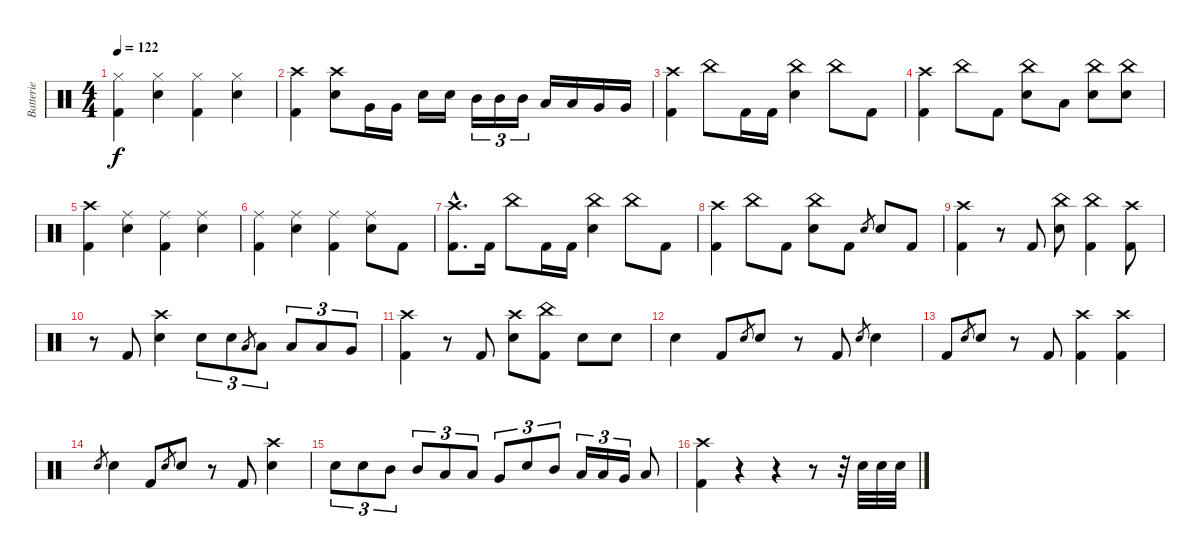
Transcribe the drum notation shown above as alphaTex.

\track ("Batterie" "Batterie") {instrument percussion}
\staff {score}
\articulation defaults
\ts (4 4)
\tempo 122
\clef neutral
\ks c
("Hi-Hat (closed)" "Kick (hit) 2").4{dy f} ("Hi-Hat (closed)" "Snare (hit) 2").4 ("Hi-Hat (closed)" "Kick (hit) 2").4 ("Hi-Hat (closed)" "Snare (hit) 2").4 |
("Crash high (hit)" "Kick (hit) 2").4 ("Crash high (hit)" "Snare (hit) 2").8 "Very Low Tom (hit)".16 "Very Low Tom (hit)".16 "Snare (hit) 2".16 "Snare (hit) 2".16 "Mid Tom (hit)".16{tu (3 2)} "Mid Tom (hit)".16{tu (3 2)} "Mid Tom (hit)".16{tu (3 2)} "Low Tom (hit)".16 "Low Tom (hit)".16 "Very Low Tom (hit)".16 "Very Low Tom (hit)".16 |
("Crash high (hit)" "Kick (hit) 2").4 "China (hit)".8 "Kick (hit) 2".16 "Kick (hit) 2".16 ("China (hit)" "Snare (hit) 2").4 "China (hit)".8 "Kick (hit) 2".8 |
("Crash high (hit)" "Kick (hit) 2").4 "China (hit)".8 "Kick (hit) 2".8 ("China (hit)" "Snare (hit) 2").8 "Low Tom (hit)".8 ("China (hit)" "Snare (hit) 2").8 ("China (hit)" "Snare (hit) 2").8 |
("Crash high (hit)" "Kick (hit) 2").4 ("Ride (middle)" "Snare (hit) 2").4 ("Ride (middle)" "Kick (hit) 2").4 ("Ride (middle)" "Snare (hit) 2").4 |
("Ride (middle)" "Kick (hit) 2").4 ("Ride (middle)" "Snare (hit) 2").4 ("Ride (middle)" "Kick (hit) 2").4 ("Ride (middle)" "Snare (hit) 2").8 "Kick (hit) 2".8 |
("Crash high (hit)"{hac} "Kick (hit) 2"{hac}).8{d} "Kick (hit) 2".16 "China (hit)".8 "Kick (hit) 2".16 "Kick (hit) 2".16 ("China (hit)" "Snare (hit) 2").4 "China (hit)".8 "Kick (hit) 2".8 |
("Crash high (hit)" "Kick (hit) 2").4 "China (hit)".8 "Kick (hit) 2".8 ("China (hit)" "Snare (hit) 2").8 "Kick (hit) 2".8 "Snare (hit) 2".8{gr} "Snare (hit) 2".8 "Kick (hit) 2".8 |
("Crash high (hit)" "Kick (hit) 2").4 r.8 "Kick (hit) 2".8 ("China (hit)" "Snare (hit) 2").8 ("China (hit)" "Kick (hit) 2").4 ("Crash high (hit)" "Kick (hit) 2").8 |
r.8 "Kick (hit) 2".8 ("Crash high (hit)" "Snare (hit) 2").4 "Snare (hit) 2".8{tu (3 2)} "Snare (hit) 2".8{tu (3 2)} "Low Tom (hit)".8{gr} "Low Tom (hit)".8{tu (3 2)} "Low Tom (hit)".8{tu (3 2)} "Low Tom (hit)".8{tu (3 2)} "Very Low Tom (hit)".8{tu (3 2)} |
("Crash high (hit)" "Kick (hit) 2").4 r.8 "Kick (hit) 2".8 ("Crash high (hit)" "Snare (hit) 2").8 ("China (hit)" "Kick (hit) 2").8 "Snare (hit) 2".8 "Snare (hit) 2".8 |
"Snare (hit) 2".4 "Kick (hit) 2".8 "Snare (hit) 2".8{gr} "Snare (hit) 2".8 r.8 "Kick (hit) 2".8 "Snare (hit) 2".8{gr} "Snare (hit) 2".4 |
"Kick (hit) 2".8 "Snare (hit) 2".8{gr} "Snare (hit) 2".8 r.8 "Kick (hit) 2".8 ("Crash high (hit)" "Kick (hit) 2").4 ("Crash high (hit)" "Kick (hit) 2").4 |
"Snare (hit) 2".8{gr} "Snare (hit) 2".4 "Kick (hit) 2".8 "Snare (hit) 2".8{gr} "Snare (hit) 2".8 r.8 "Kick (hit) 2".8 ("Crash high (hit)" "Snare (hit) 2").4 |
"Snare (hit) 2".8{tu (3 2)} "Snare (hit) 2".8{tu (3 2)} "Mid Tom (hit)".8{tu (3 2)} "Mid Tom (hit)".8{tu (3 2)} "Low Tom (hit)".8{tu (3 2)} "Low Tom (hit)".8{tu (3 2)} "Very Low Tom (hit)".8{tu (3 2)} "Snare (hit) 2".8{tu (3 2)} "Mid Tom (hit)".8{tu (3 2)} "Low Tom (hit)".16{tu (3 2)} "Low Tom (hit)".16{tu (3 2)} "Very Low Tom (hit)".16{tu (3 2)} "Low Floor Tom (hit)".8 |
("Crash high (hit)" "Kick (hit) 2").4 r.4 r.4 r.8 r.32 "Snare (hit) 2".32 "Snare (hit) 2".32 "Snare (hit) 2".32
